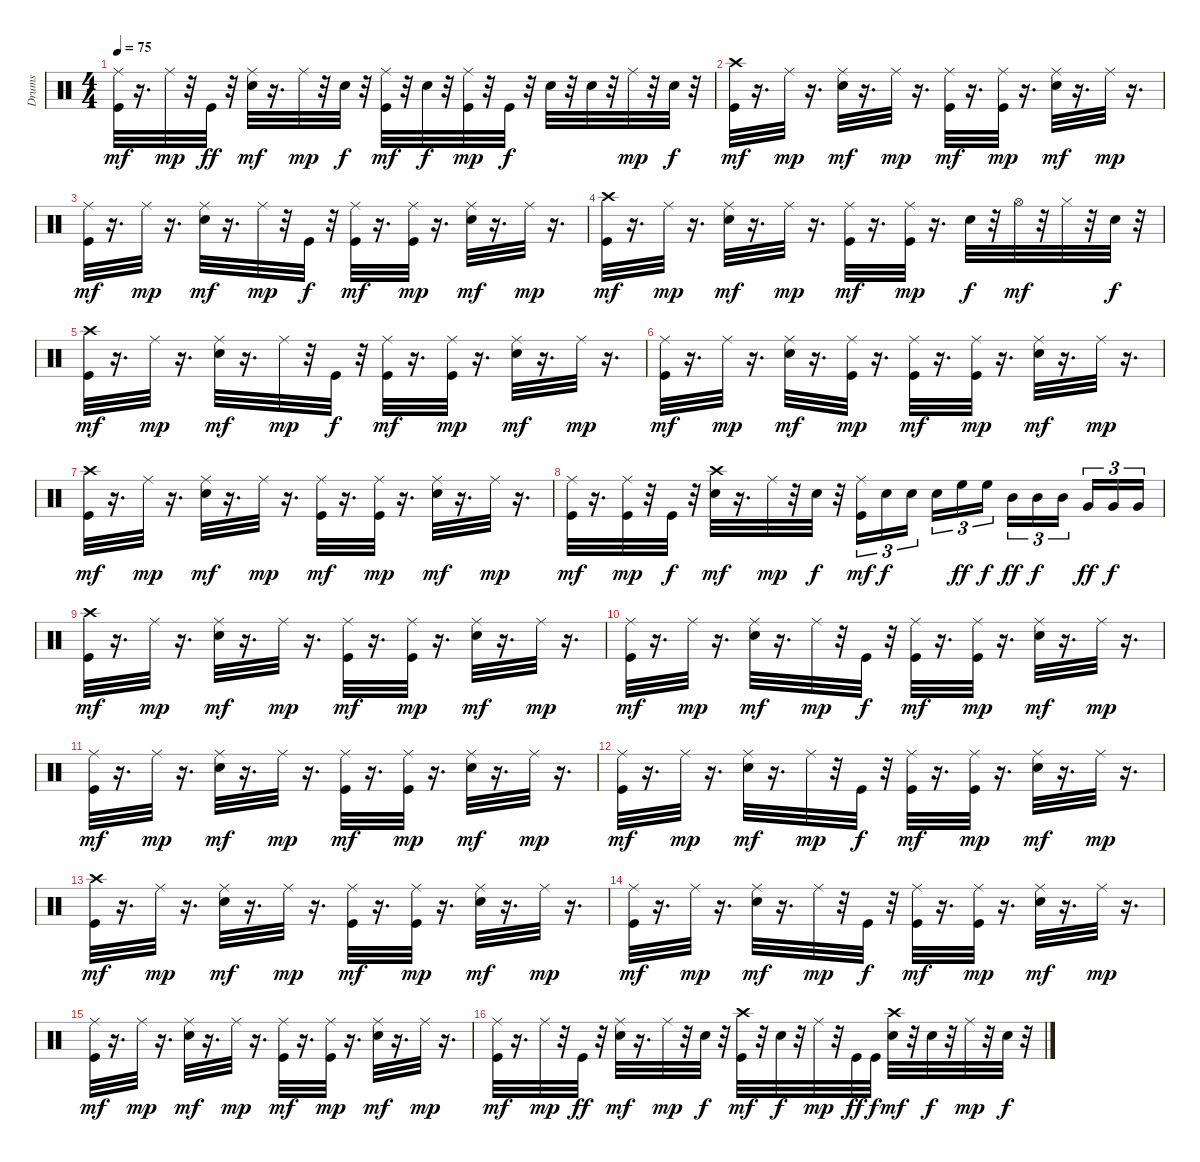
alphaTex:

\track ("Drums" "Drums") {instrument percussion}
\staff {score}
\articulation defaults
\ts (4 4)
\tempo 75
\clef neutral
\ks c
("Kick (hit)" "Ride (middle)").32{dy mf} r.16{d} "Ride (middle)".32{dy mp} r.32 "Kick (hit)".32{dy ff} r.32 ("Snare (hit) 2" "Ride (middle)").32{dy mf} r.16{d} "Ride (middle)".32{dy mp} r.32 "Snare (hit) 2".32{dy f} r.32 ("Kick (hit)" "Ride (middle)").32{dy mf} r.32 "Snare (hit) 2".32{dy f} r.32 ("Kick (hit)" "Ride (middle)").32{dy mp} r.32 "Kick (hit)".32{dy f} r.32 "Snare (hit) 2".32 r.32 "Snare (hit) 2".32 r.32 "Ride (middle)".32{dy mp} r.32 "Snare (hit) 2".32{dy f} r.32 |
("Kick (hit)" "Crash high (hit)").32{dy mf} r.16{d} "Ride (middle)".32{dy mp} r.16{d} ("Snare (hit) 2" "Ride (middle)").32{dy mf} r.16{d} "Ride (middle)".32{dy mp} r.16{d} ("Kick (hit)" "Ride (middle)").32{dy mf} r.16{d} ("Kick (hit)" "Ride (middle)").32{dy mp} r.16{d} ("Snare (hit) 2" "Ride (middle)").32{dy mf} r.16{d} "Ride (middle)".32{dy mp} r.16{d} |
("Kick (hit)" "Ride (middle)").32{dy mf} r.16{d} "Ride (middle)".32{dy mp} r.16{d} ("Snare (hit) 2" "Ride (middle)").32{dy mf} r.16{d} "Ride (middle)".32{dy mp} r.32 "Kick (hit)".32{dy f} r.32 ("Kick (hit)" "Ride (middle)").32{dy mf} r.16{d} ("Kick (hit)" "Ride (middle)").32{dy mp} r.16{d} ("Snare (hit) 2" "Ride (middle)").32{dy mf} r.16{d} "Ride (middle)".32{dy mp} r.16{d} |
("Kick (hit)" "Crash high (hit)").32{dy mf} r.16{d} "Ride (middle)".32{dy mp} r.16{d} ("Snare (hit) 2" "Ride (middle)").32{dy mf} r.16{d} "Ride (middle)".32{dy mp} r.16{d} ("Kick (hit)" "Ride (middle)").32{dy mf} r.16{d} ("Kick (hit)" "Ride (middle)").32{dy mp} r.16{d} "Snare (hit) 2".32{dy f} r.32 "Hi-Hat (open)".32{dy mf} r.32 "Hi-Hat (closed)".32 r.32 "Snare (hit) 2".32{dy f} r.32 |
("Kick (hit)" "Crash high (hit)").32{dy mf} r.16{d} "Ride (middle)".32{dy mp} r.16{d} ("Snare (hit) 2" "Ride (middle)").32{dy mf} r.16{d} "Ride (middle)".32{dy mp} r.32 "Kick (hit)".32{dy f} r.32 ("Kick (hit)" "Ride (middle)").32{dy mf} r.16{d} ("Kick (hit)" "Ride (middle)").32{dy mp} r.16{d} ("Snare (hit) 2" "Ride (middle)").32{dy mf} r.16{d} "Ride (middle)".32{dy mp} r.16{d} |
("Kick (hit)" "Ride (middle)").32{dy mf} r.16{d} "Ride (middle)".32{dy mp} r.16{d} ("Snare (hit) 2" "Ride (middle)").32{dy mf} r.16{d} ("Kick (hit)" "Ride (middle)").32{dy mp} r.16{d} ("Kick (hit)" "Ride (middle)").32{dy mf} r.16{d} ("Kick (hit)" "Ride (middle)").32{dy mp} r.16{d} ("Snare (hit) 2" "Ride (middle)").32{dy mf} r.16{d} "Ride (middle)".32{dy mp} r.16{d} |
("Kick (hit)" "Crash high (hit)").32{dy mf} r.16{d} "Ride (middle)".32{dy mp} r.16{d} ("Snare (hit) 2" "Ride (middle)").32{dy mf} r.16{d} "Ride (middle)".32{dy mp} r.16{d} ("Kick (hit)" "Ride (middle)").32{dy mf} r.16{d} ("Kick (hit)" "Ride (middle)").32{dy mp} r.16{d} ("Snare (hit) 2" "Ride (middle)").32{dy mf} r.16{d} "Ride (middle)".32{dy mp} r.16{d} |
("Kick (hit)" "Ride (middle)").32{dy mf} r.16{d} ("Kick (hit)" "Ride (middle)").32{dy mp} r.32 "Kick (hit)".32{dy f} r.32 ("Snare (hit) 2" "Crash high (hit)").32{dy mf} r.16{d} "Ride (middle)".32{dy mp} r.32 "Snare (hit) 2".32{dy f} r.32 ("Kick (hit)" "Ride (middle)").16{tu (3 2) dy mf} "Snare (hit) 2".16{tu (3 2) dy f} "Snare (hit) 2".16{tu (3 2)} "Snare (hit) 2".16{tu (3 2)} "High Floor Tom (hit)".16{tu (3 2) dy ff} "High Floor Tom (hit)".16{tu (3 2) dy f} "Mid Tom (hit)".16{tu (3 2) dy ff} "Mid Tom (hit)".16{tu (3 2) dy f} "Mid Tom (hit)".16{tu (3 2)} "Very Low Tom (hit)".16{tu (3 2) dy ff} "Very Low Tom (hit)".16{tu (3 2) dy f} "Very Low Tom (hit)".16{tu (3 2)} |
("Kick (hit)" "Crash high (hit)").32{dy mf} r.16{d} "Ride (middle)".32{dy mp} r.16{d} ("Snare (hit) 2" "Ride (middle)").32{dy mf} r.16{d} "Ride (middle)".32{dy mp} r.16{d} ("Kick (hit)" "Ride (middle)").32{dy mf} r.16{d} ("Kick (hit)" "Ride (middle)").32{dy mp} r.16{d} ("Snare (hit) 2" "Ride (middle)").32{dy mf} r.16{d} "Ride (middle)".32{dy mp} r.16{d} |
("Kick (hit)" "Ride (middle)").32{dy mf} r.16{d} "Ride (middle)".32{dy mp} r.16{d} ("Snare (hit) 2" "Ride (middle)").32{dy mf} r.16{d} "Ride (middle)".32{dy mp} r.32 "Kick (hit)".32{dy f} r.32 ("Kick (hit)" "Ride (middle)").32{dy mf} r.16{d} ("Kick (hit)" "Ride (middle)").32{dy mp} r.16{d} ("Snare (hit) 2" "Ride (middle)").32{dy mf} r.16{d} "Ride (middle)".32{dy mp} r.16{d} |
("Kick (hit)" "Ride (middle)").32{dy mf} r.16{d} "Ride (middle)".32{dy mp} r.16{d} ("Snare (hit) 2" "Ride (middle)").32{dy mf} r.16{d} "Ride (middle)".32{dy mp} r.16{d} ("Kick (hit)" "Ride (middle)").32{dy mf} r.16{d} ("Kick (hit)" "Ride (middle)").32{dy mp} r.16{d} ("Snare (hit) 2" "Ride (middle)").32{dy mf} r.16{d} "Ride (middle)".32{dy mp} r.16{d} |
("Kick (hit)" "Ride (middle)").32{dy mf} r.16{d} "Ride (middle)".32{dy mp} r.16{d} ("Snare (hit) 2" "Ride (middle)").32{dy mf} r.16{d} "Ride (middle)".32{dy mp} r.32 "Kick (hit)".32{dy f} r.32 ("Kick (hit)" "Ride (middle)").32{dy mf} r.16{d} ("Kick (hit)" "Ride (middle)").32{dy mp} r.16{d} ("Snare (hit) 2" "Ride (middle)").32{dy mf} r.16{d} "Ride (middle)".32{dy mp} r.16{d} |
("Kick (hit)" "Crash high (hit)").32{dy mf} r.16{d} "Ride (middle)".32{dy mp} r.16{d} ("Snare (hit) 2" "Ride (middle)").32{dy mf} r.16{d} "Ride (middle)".32{dy mp} r.16{d} ("Kick (hit)" "Ride (middle)").32{dy mf} r.16{d} ("Kick (hit)" "Ride (middle)").32{dy mp} r.16{d} ("Snare (hit) 2" "Ride (middle)").32{dy mf} r.16{d} "Ride (middle)".32{dy mp} r.16{d} |
("Kick (hit)" "Ride (middle)").32{dy mf} r.16{d} "Ride (middle)".32{dy mp} r.16{d} ("Snare (hit) 2" "Ride (middle)").32{dy mf} r.16{d} "Ride (middle)".32{dy mp} r.32 "Kick (hit)".32{dy f} r.32 ("Kick (hit)" "Ride (middle)").32{dy mf} r.16{d} ("Kick (hit)" "Ride (middle)").32{dy mp} r.16{d} ("Snare (hit) 2" "Ride (middle)").32{dy mf} r.16{d} "Ride (middle)".32{dy mp} r.16{d} |
("Kick (hit)" "Ride (middle)").32{dy mf} r.16{d} "Ride (middle)".32{dy mp} r.16{d} ("Snare (hit) 2" "Ride (middle)").32{dy mf} r.16{d} "Ride (middle)".32{dy mp} r.16{d} ("Kick (hit)" "Ride (middle)").32{dy mf} r.16{d} ("Kick (hit)" "Ride (middle)").32{dy mp} r.16{d} ("Snare (hit) 2" "Ride (middle)").32{dy mf} r.16{d} "Ride (middle)".32{dy mp} r.16{d} |
("Kick (hit)" "Ride (middle)").32{dy mf} r.16{d} "Ride (middle)".32{dy mp} r.32 "Kick (hit)".32{dy ff} r.32 ("Snare (hit) 2" "Ride (middle)").32{dy mf} r.16{d} "Ride (middle)".32{dy mp} r.32 "Snare (hit) 2".32{dy f} r.32 ("Kick (hit)" "Crash high (hit)").32{dy mf} r.32 "Snare (hit) 2".32{dy f} r.32 "Ride (middle)".32{dy mp} r.32 "Kick (hit)".32{dy ff} "Kick (hit)".32{dy f} ("Snare (hit) 2" "Crash high (hit)").32{dy mf} r.32 "Snare (hit) 2".32{dy f} r.32 "Ride (middle)".32{dy mp} r.32 "Snare (hit) 2".32{dy f} r.32
